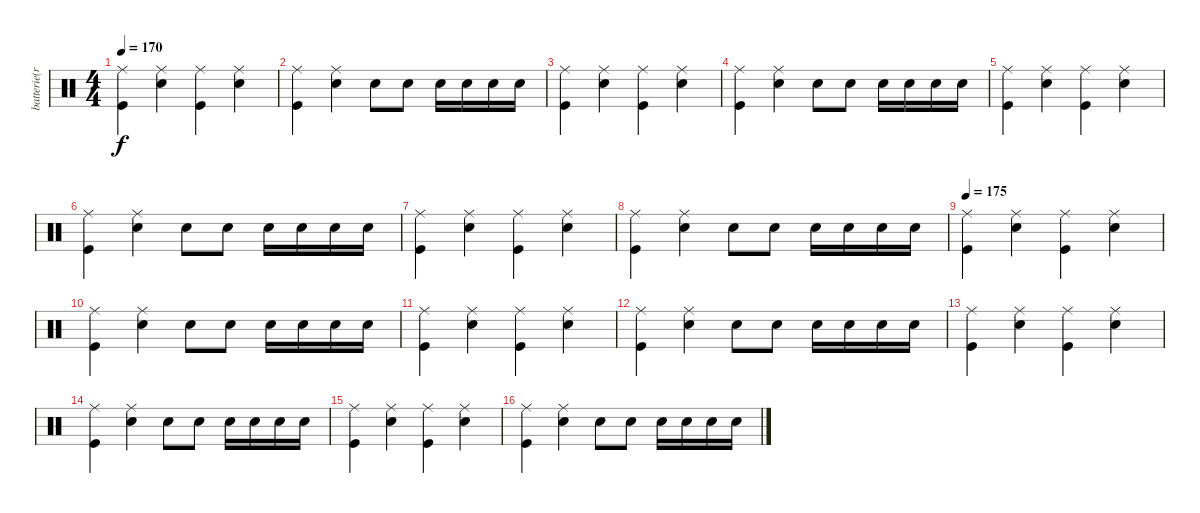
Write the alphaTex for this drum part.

\track ("batterie(rimbaud)" "batterie(r") {instrument percussion}
\staff {score}
\articulation defaults
\ts (4 4)
\tempo 170
\clef neutral
\ks c
("Ride (middle)" "Kick (hit)").4{dy f} ("Ride (middle)" "Snare (hit) 2").4 ("Ride (middle)" "Kick (hit)").4 ("Ride (middle)" "Snare (hit) 2").4 |
("Ride (middle)" "Kick (hit)").4 ("Ride (middle)" "Snare (hit) 2").4 "Snare (hit) 2".8 "Snare (hit) 2".8 "Snare (hit) 2".16 "Snare (hit) 2".16 "Snare (hit) 2".16 "Snare (hit) 2".16 |
("Ride (middle)" "Kick (hit)").4 ("Ride (middle)" "Snare (hit) 2").4 ("Ride (middle)" "Kick (hit)").4 ("Ride (middle)" "Snare (hit) 2").4 |
("Ride (middle)" "Kick (hit)").4 ("Ride (middle)" "Snare (hit) 2").4 "Snare (hit) 2".8 "Snare (hit) 2".8 "Snare (hit) 2".16 "Snare (hit) 2".16 "Snare (hit) 2".16 "Snare (hit) 2".16 |
("Ride (middle)" "Kick (hit)").4 ("Ride (middle)" "Snare (hit) 2").4 ("Ride (middle)" "Kick (hit)").4 ("Ride (middle)" "Snare (hit) 2").4 |
("Ride (middle)" "Kick (hit)").4 ("Ride (middle)" "Snare (hit) 2").4 "Snare (hit) 2".8 "Snare (hit) 2".8 "Snare (hit) 2".16 "Snare (hit) 2".16 "Snare (hit) 2".16 "Snare (hit) 2".16 |
("Ride (middle)" "Kick (hit)").4 ("Ride (middle)" "Snare (hit) 2").4 ("Ride (middle)" "Kick (hit)").4 ("Ride (middle)" "Snare (hit) 2").4 |
("Ride (middle)" "Kick (hit)").4 ("Ride (middle)" "Snare (hit) 2").4 "Snare (hit) 2".8 "Snare (hit) 2".8 "Snare (hit) 2".16 "Snare (hit) 2".16 "Snare (hit) 2".16 "Snare (hit) 2".16 |
\tempo 175
("Ride (middle)" "Kick (hit)").4 ("Ride (middle)" "Snare (hit) 2").4 ("Ride (middle)" "Kick (hit)").4 ("Ride (middle)" "Snare (hit) 2").4 |
("Ride (middle)" "Kick (hit)").4 ("Ride (middle)" "Snare (hit) 2").4 "Snare (hit) 2".8 "Snare (hit) 2".8 "Snare (hit) 2".16 "Snare (hit) 2".16 "Snare (hit) 2".16 "Snare (hit) 2".16 |
("Ride (middle)" "Kick (hit)").4 ("Ride (middle)" "Snare (hit) 2").4 ("Ride (middle)" "Kick (hit)").4 ("Ride (middle)" "Snare (hit) 2").4 |
("Ride (middle)" "Kick (hit)").4 ("Ride (middle)" "Snare (hit) 2").4 "Snare (hit) 2".8 "Snare (hit) 2".8 "Snare (hit) 2".16 "Snare (hit) 2".16 "Snare (hit) 2".16 "Snare (hit) 2".16 |
("Ride (middle)" "Kick (hit)").4 ("Ride (middle)" "Snare (hit) 2").4 ("Ride (middle)" "Kick (hit)").4 ("Ride (middle)" "Snare (hit) 2").4 |
("Ride (middle)" "Kick (hit)").4 ("Ride (middle)" "Snare (hit) 2").4 "Snare (hit) 2".8 "Snare (hit) 2".8 "Snare (hit) 2".16 "Snare (hit) 2".16 "Snare (hit) 2".16 "Snare (hit) 2".16 |
("Ride (middle)" "Kick (hit)").4 ("Ride (middle)" "Snare (hit) 2").4 ("Ride (middle)" "Kick (hit)").4 ("Ride (middle)" "Snare (hit) 2").4 |
("Ride (middle)" "Kick (hit)").4 ("Ride (middle)" "Snare (hit) 2").4 "Snare (hit) 2".8 "Snare (hit) 2".8 "Snare (hit) 2".16 "Snare (hit) 2".16 "Snare (hit) 2".16 "Snare (hit) 2".16
